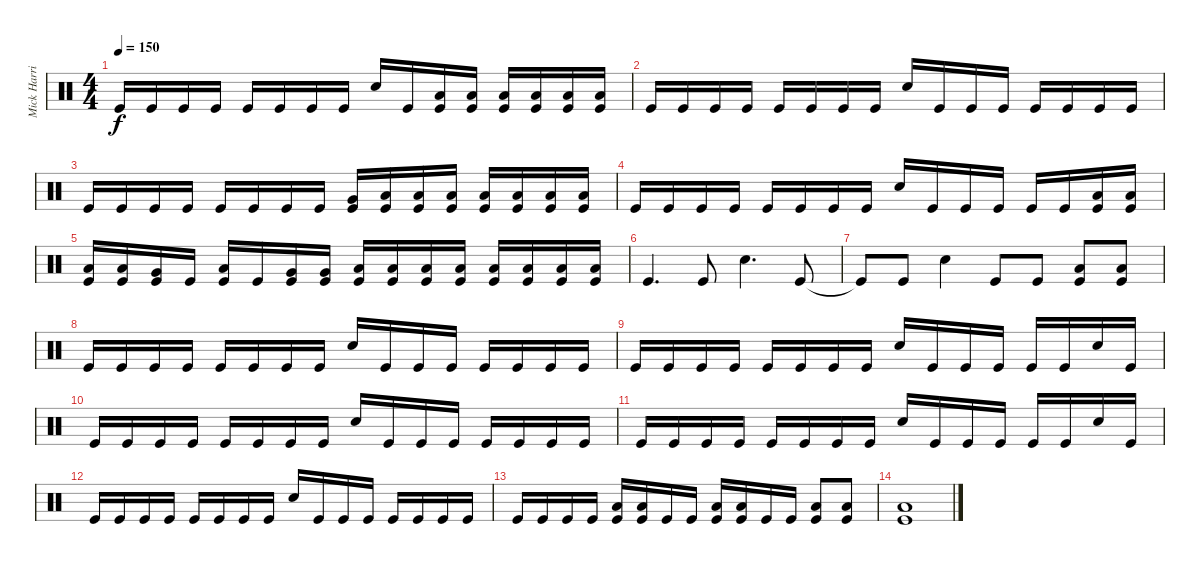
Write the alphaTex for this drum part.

\track ("Mick Harris" "Mick Harri") {instrument percussion}
\staff {score}
\articulation defaults
\ts (4 4)
\tempo 150
\clef neutral
\ks c "Kick (hit)".16{dy f} "Kick (hit)".16 "Kick (hit)".16 "Kick (hit)".16 "Kick (hit)".16 "Kick (hit)".16 "Kick (hit)".16 "Kick (hit)".16 "Snare (hit) 2".16 "Kick (hit)".16
("Kick (hit)" "Low Floor Tom (hit)").16 ("Kick (hit)" "Low Floor Tom (hit)").16 ("Kick (hit)" "Low Floor Tom (hit)").16 ("Kick (hit)" "Low Floor Tom (hit)").16 ("Kick (hit)" "Low Floor Tom (hit)").16 ("Kick (hit)" "Low Floor Tom (hit)").16 |
"Kick (hit)".16 "Kick (hit)".16 "Kick (hit)".16 "Kick (hit)".16 "Kick (hit)".16 "Kick (hit)".16 "Kick (hit)".16 "Kick (hit)".16 "Snare (hit) 2".16 "Kick (hit)".16 "Kick (hit)".16 "Kick (hit)".16 "Kick (hit)".16 "Kick (hit)".16 "Kick (hit)".16 "Kick (hit)".16 |
"Kick (hit)".16 "Kick (hit)".16 "Kick (hit)".16 "Kick (hit)".16 "Kick (hit)".16 "Kick (hit)".16 "Kick (hit)".16 "Kick (hit)".16 ("Very Low Tom (hit)" "Kick (hit)").16 ("Kick (hit)" "Low Floor Tom (hit)").16 ("Kick (hit)" "Low Floor Tom (hit)").16 ("Kick (hit)" "Low Floor Tom (hit)").16 ("Kick (hit)" "Low Floor Tom (hit)").16 ("Kick (hit)" "Low Floor Tom (hit)").16 ("Low Tom (hit)" "Kick (hit)").16 ("Kick (hit)" "Low Floor Tom (hit)").16 |
"Kick (hit)".16 "Kick (hit)".16 "Kick (hit)".16 "Kick (hit)".16 "Kick (hit)".16 "Kick (hit)".16 "Kick (hit)".16 "Kick (hit)".16 "Snare (hit) 2".16 "Kick (hit)".16 "Kick (hit)".16 "Kick (hit)".16 "Kick (hit)".16 "Kick (hit)".16 ("Low Tom (hit)" "Kick (hit)").16 ("Low Tom (hit)" "Kick (hit)").16 |
("Low Tom (hit)" "Kick (hit)").16 ("Low Tom (hit)" "Kick (hit)").16 ("Very Low Tom (hit)" "Kick (hit)").16 "Kick (hit)".16 ("Low Tom (hit)" "Kick (hit)").16 "Kick (hit)".16 ("Very Low Tom (hit)" "Kick (hit)").16 ("Very Low Tom (hit)" "Kick (hit)").16 ("Low Floor Tom (hit)" "Kick (hit)").16 ("Low Floor Tom (hit)" "Kick (hit)").16 ("Low Floor Tom (hit)" "Kick (hit)").16 ("Low Floor Tom (hit)" "Kick (hit)").16 ("Low Floor Tom (hit)" "Kick (hit)").16 ("Low Floor Tom (hit)" "Kick (hit)").16 ("Low Floor Tom (hit)" "Kick (hit)").16 ("Low Floor Tom (hit)" "Kick (hit)").16 |
"Kick (hit)".4{d} "Kick (hit)".8 "Snare (hit) 2".4{d} "Kick (hit)".8 |
"Kick (hit)"{t}.8 "Kick (hit)".8 "Snare (hit) 2".4 "Kick (hit)".8 "Kick (hit)".8 ("Low Floor Tom (hit)" "Kick (hit)").8 ("Low Floor Tom (hit)" "Kick (hit)").8 |
"Kick (hit)".16 "Kick (hit)".16 "Kick (hit)".16 "Kick (hit)".16 "Kick (hit)".16 "Kick (hit)".16 "Kick (hit)".16 "Kick (hit)".16 "Snare (hit) 2".16 "Kick (hit)".16 "Kick (hit)".16 "Kick (hit)".16 "Kick (hit)".16 "Kick (hit)".16 "Kick (hit)".16 "Kick (hit)".16 |
"Kick (hit)".16 "Kick (hit)".16 "Kick (hit)".16 "Kick (hit)".16 "Kick (hit)".16 "Kick (hit)".16 "Kick (hit)".16 "Kick (hit)".16 "Snare (hit) 2".16 "Kick (hit)".16 "Kick (hit)".16 "Kick (hit)".16 "Kick (hit)".16 "Kick (hit)".16 "Snare (hit) 2".16 "Kick (hit)".16 |
"Kick (hit)".16 "Kick (hit)".16 "Kick (hit)".16 "Kick (hit)".16 "Kick (hit)".16 "Kick (hit)".16 "Kick (hit)".16 "Kick (hit)".16 "Snare (hit) 2".16 "Kick (hit)".16 "Kick (hit)".16 "Kick (hit)".16 "Kick (hit)".16 "Kick (hit)".16 "Kick (hit)".16 "Kick (hit)".16 |
"Kick (hit)".16 "Kick (hit)".16 "Kick (hit)".16 "Kick (hit)".16 "Kick (hit)".16 "Kick (hit)".16 "Kick (hit)".16 "Kick (hit)".16 "Snare (hit) 2".16 "Kick (hit)".16 "Kick (hit)".16 "Kick (hit)".16 "Kick (hit)".16 "Kick (hit)".16 "Snare (hit) 2".16 "Kick (hit)".16 |
"Kick (hit)".16 "Kick (hit)".16 "Kick (hit)".16 "Kick (hit)".16 "Kick (hit)".16 "Kick (hit)".16 "Kick (hit)".16 "Kick (hit)".16 "Snare (hit) 2".16 "Kick (hit)".16 "Kick (hit)".16 "Kick (hit)".16 "Kick (hit)".16 "Kick (hit)".16 "Kick (hit)".16 "Kick (hit)".16 |
"Kick (hit)".16 "Kick (hit)".16 "Kick (hit)".16 "Kick (hit)".16 ("Low Tom (hit)" "Kick (hit)").16 ("Low Tom (hit)" "Kick (hit)").16 "Kick (hit)".16 "Kick (hit)".16 ("Low Tom (hit)" "Kick (hit)").16 ("Low Tom (hit)" "Kick (hit)").16 "Kick (hit)".16 "Kick (hit)".16 ("Low Floor Tom (hit)" "Kick (hit)").8 ("Low Floor Tom (hit)" "Kick (hit)").8 |
("Low Floor Tom (hit)" "Kick (hit)").1
